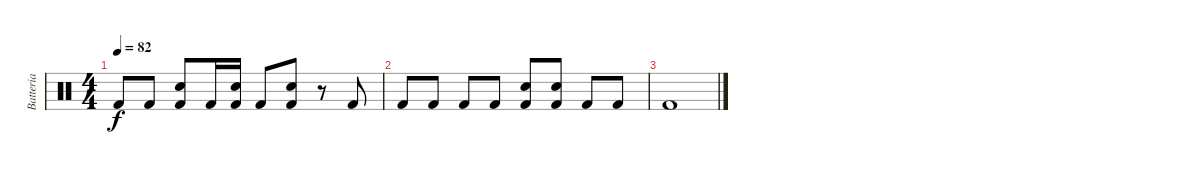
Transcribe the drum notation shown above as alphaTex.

\track ("Batteria" "Batteria") {instrument percussion}
\staff {score}
\articulation defaults
\ts (4 4)
\tempo 82
\clef neutral
\ks c "Kick (hit) 2".8{dy f} "Kick (hit) 2".8
("Snare (hit) 2" "Kick (hit) 2").8 "Kick (hit) 2".16 ("Snare (hit) 2" "Kick (hit) 2").16 "Kick (hit) 2".8 ("Snare (hit) 2" "Kick (hit) 2").8 r.8 "Kick (hit) 2".8 |
"Kick (hit) 2".8 "Kick (hit) 2".8 "Kick (hit) 2".8 "Kick (hit) 2".8 ("Snare (hit) 2" "Kick (hit) 2").8 ("Snare (hit) 2" "Kick (hit) 2").8 "Kick (hit) 2".8 "Kick (hit) 2".8 |
"Kick (hit) 2".1
